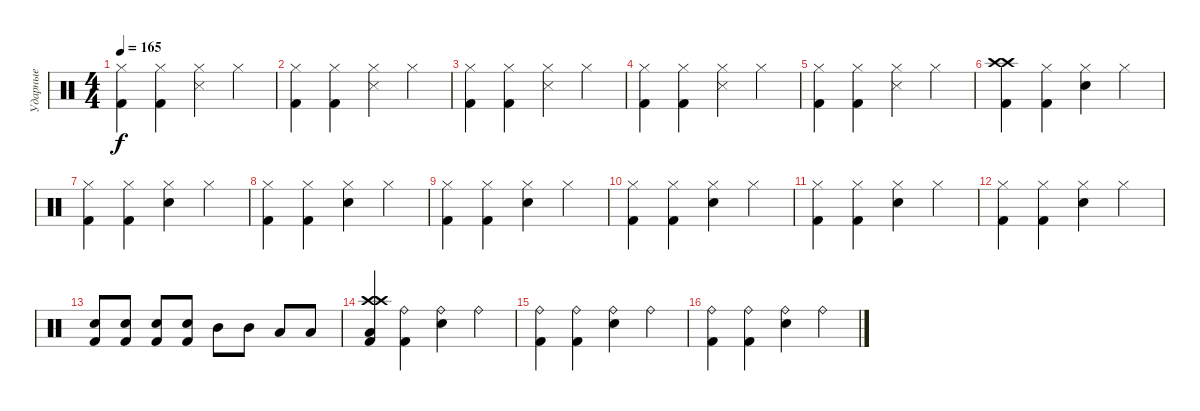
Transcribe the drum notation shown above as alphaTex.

\track ("Ударные" "Ударные") {instrument percussion}
\staff {score}
\articulation defaults
\ts (4 4)
\tempo 165
\clef neutral
\ks c
("Hi-Hat (closed)" "Kick (hit) 2").4{dy f} ("Hi-Hat (closed)" "Kick (hit) 2").4 ("Hi-Hat (closed)" "Snare (side stick) 3").4 "Hi-Hat (closed)".4 |
("Hi-Hat (closed)" "Kick (hit) 2").4 ("Hi-Hat (closed)" "Kick (hit) 2").4 ("Hi-Hat (closed)" "Snare (side stick) 3").4 "Hi-Hat (closed)".4 |
("Hi-Hat (closed)" "Kick (hit) 2").4 ("Hi-Hat (closed)" "Kick (hit) 2").4 ("Hi-Hat (closed)" "Snare (side stick) 3").4 "Hi-Hat (closed)".4 |
("Hi-Hat (closed)" "Kick (hit) 2").4 ("Hi-Hat (closed)" "Kick (hit) 2").4 ("Hi-Hat (closed)" "Snare (side stick) 3").4 "Hi-Hat (closed)".4 |
("Hi-Hat (closed)" "Kick (hit) 2").4 ("Hi-Hat (closed)" "Kick (hit) 2").4 ("Hi-Hat (closed)" "Snare (side stick) 3").4 "Hi-Hat (closed)".4 |
("Crash high (hit)" "Crash high (hit)" "Kick (hit) 2").4 ("Hi-Hat (closed)" "Kick (hit) 2").4 ("Hi-Hat (closed)" "Snare (hit) 2").4 "Hi-Hat (closed)".4 |
("Hi-Hat (closed)" "Kick (hit) 2").4 ("Hi-Hat (closed)" "Kick (hit) 2").4 ("Hi-Hat (closed)" "Snare (hit) 2").4 "Hi-Hat (closed)".4 |
("Hi-Hat (closed)" "Kick (hit) 2").4 ("Hi-Hat (closed)" "Kick (hit) 2").4 ("Hi-Hat (closed)" "Snare (hit) 2").4 "Hi-Hat (closed)".4 |
("Hi-Hat (closed)" "Kick (hit) 2").4 ("Hi-Hat (closed)" "Kick (hit) 2").4 ("Hi-Hat (closed)" "Snare (hit) 2").4 "Hi-Hat (closed)".4 |
("Hi-Hat (closed)" "Kick (hit) 2").4 ("Hi-Hat (closed)" "Kick (hit) 2").4 ("Hi-Hat (closed)" "Snare (hit) 2").4 "Hi-Hat (closed)".4 |
("Hi-Hat (closed)" "Kick (hit) 2").4 ("Hi-Hat (closed)" "Kick (hit) 2").4 ("Hi-Hat (closed)" "Snare (hit) 2").4 "Hi-Hat (closed)".4 |
("Hi-Hat (closed)" "Kick (hit) 2").4 ("Hi-Hat (closed)" "Kick (hit) 2").4 ("Hi-Hat (closed)" "Snare (hit) 2").4 "Hi-Hat (closed)".4 |
("Snare (hit) 2" "Kick (hit) 2").8 ("Kick (hit) 2" "Snare (hit) 2").8 ("Kick (hit) 2" "Snare (hit) 2").8 ("Snare (hit) 2" "Kick (hit) 2").8 "Mid Tom (hit)".8 "Mid Tom (hit)".8 "Low Tom (hit)".8 "Low Tom (hit)".8 |
("Crash high (hit)" "Crash high (hit)" "Kick (hit) 2" "Low Floor Tom (hit)").4 ("Ride (bell)" "Kick (hit) 2").4 ("Ride (bell)" "Snare (hit) 2").4 "Ride (bell)".4 |
("Ride (bell)" "Kick (hit) 2").4 ("Ride (bell)" "Kick (hit) 2").4 ("Ride (bell)" "Snare (hit) 2").4 "Ride (bell)".4 |
("Ride (bell)" "Kick (hit) 2").4 ("Ride (bell)" "Kick (hit) 2").4 ("Ride (bell)" "Snare (hit) 2").4 "Ride (bell)".4
